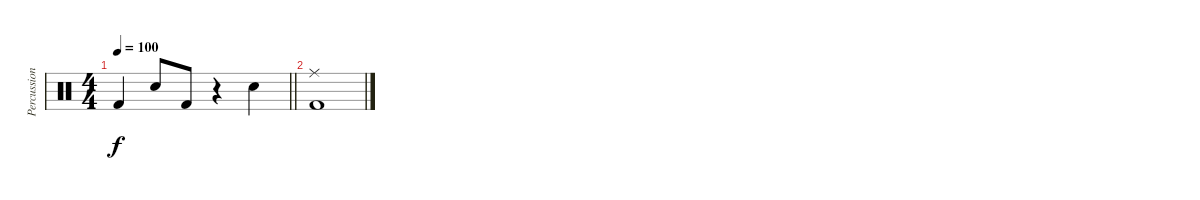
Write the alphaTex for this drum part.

\track ("Percussion" "Percussion") {instrument percussion}
\staff {score}
\articulation defaults
\ts (4 4)
\tempo 100
\clef neutral
\barLineRight lightlight
\ks c "Kick (hit) 2".4{dy f} "Snare (hit) 2".8 "Kick (hit) 2".8
r.4 "Snare (hit) 2".4 |
("Ride (middle)" "Kick (hit) 2").1
